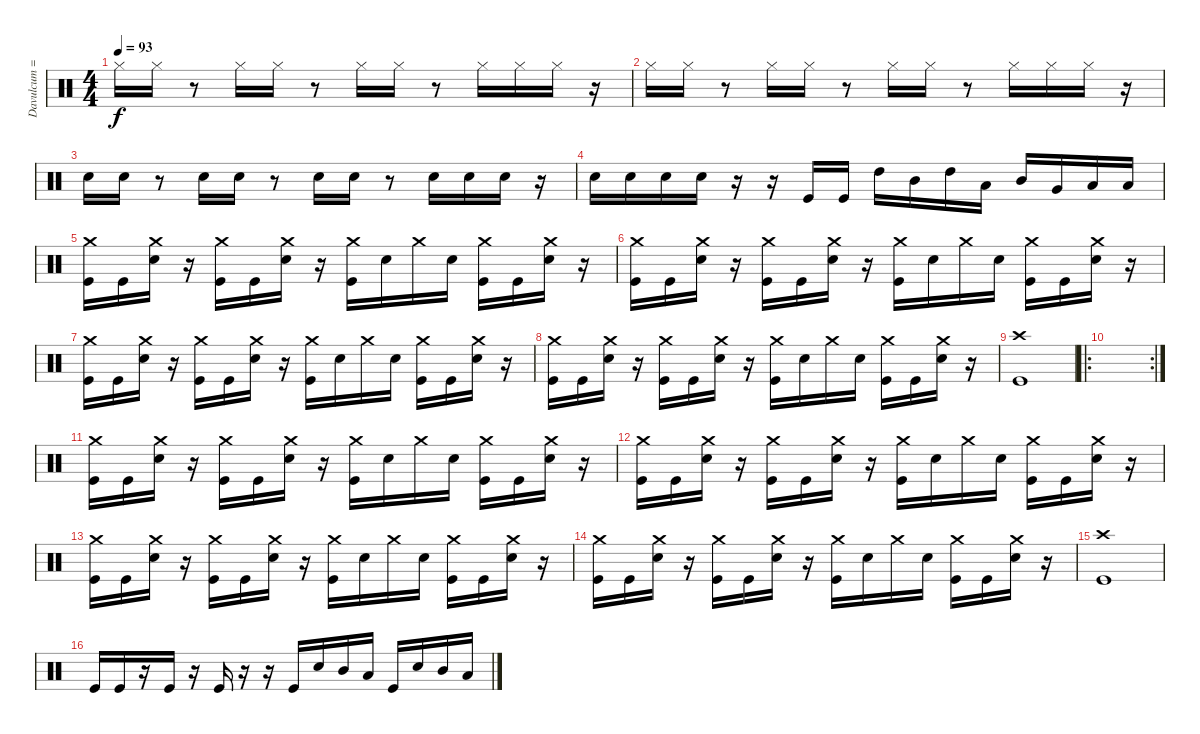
\track ("Davulcum =)" "Davulcum =") {instrument percussion}
\staff {score}
\articulation defaults
\ts (4 4)
\tempo 93
\clef neutral
\ks c "Hi-Hat (closed)".16{dy f} "Hi-Hat (closed)".16
r.8 "Hi-Hat (closed)".16 "Hi-Hat (closed)".16 r.8 "Hi-Hat (closed)".16 "Hi-Hat (closed)".16 r.8 "Hi-Hat (closed)".16 "Hi-Hat (closed)".16 "Hi-Hat (closed)".16 r.16 |
"Hi-Hat (closed)".16 "Hi-Hat (closed)".16 r.8 "Hi-Hat (closed)".16 "Hi-Hat (closed)".16 r.8 "Hi-Hat (closed)".16 "Hi-Hat (closed)".16 r.8 "Hi-Hat (closed)".16 "Hi-Hat (closed)".16 "Hi-Hat (closed)".16 r.16 |
"Snare (hit) 2".16 "Snare (hit) 2".16 r.8 "Snare (hit) 2".16 "Snare (hit) 2".16 r.8 "Snare (hit) 2".16 "Snare (hit) 2".16 r.8 "Snare (hit) 2".16 "Snare (hit) 2".16 "Snare (hit) 2".16 r.16 |
"Snare (hit) 2".16 "Snare (hit) 2".16 "Snare (hit) 2".16 "Snare (hit) 2".16 r.16 r.16 "Kick (hit)".16 "Kick (hit)".16 "High Tom (hit)".16 "Mid Tom (hit)".16 "High Tom (hit)".16 "Low Tom (hit)".16 "Mid Tom (hit)".16 "Very Low Tom (hit)".16 "Low Tom (hit)".16 "Low Floor Tom (hit)".16 |
("Crash medium (hit)" "Kick (hit)").16 "Kick (hit)".16 ("Crash medium (hit)" "Snare (hit) 2").16 r.16 ("Crash medium (hit)" "Kick (hit)").16 "Kick (hit)".16 ("Crash medium (hit)" "Snare (hit) 2").16 r.16 ("Crash medium (hit)" "Kick (hit)").16 "Snare (hit) 2".16 "Crash medium (hit)".16 "Snare (hit) 2".16 ("Crash medium (hit)" "Kick (hit)").16 "Kick (hit)".16 ("Crash medium (hit)" "Snare (hit) 2").16 r.16 |
("Crash medium (hit)" "Kick (hit)").16 "Kick (hit)".16 ("Crash medium (hit)" "Snare (hit) 2").16 r.16 ("Crash medium (hit)" "Kick (hit)").16 "Kick (hit)".16 ("Crash medium (hit)" "Snare (hit) 2").16 r.16 ("Crash medium (hit)" "Kick (hit)").16 "Snare (hit) 2".16 "Crash medium (hit)".16 "Snare (hit) 2".16 ("Crash medium (hit)" "Kick (hit)").16 "Kick (hit)".16 ("Crash medium (hit)" "Snare (hit) 2").16 r.16 |
("Crash medium (hit)" "Kick (hit)").16 "Kick (hit)".16 ("Crash medium (hit)" "Snare (hit) 2").16 r.16 ("Crash medium (hit)" "Kick (hit)").16 "Kick (hit)".16 ("Crash medium (hit)" "Snare (hit) 2").16 r.16 ("Crash medium (hit)" "Kick (hit)").16 "Snare (hit) 2".16 "Crash medium (hit)".16 "Snare (hit) 2".16 ("Crash medium (hit)" "Kick (hit)").16 "Kick (hit)".16 ("Crash medium (hit)" "Snare (hit) 2").16 r.16 |
("Crash medium (hit)" "Kick (hit)").16 "Kick (hit)".16 ("Crash medium (hit)" "Snare (hit) 2").16 r.16 ("Crash medium (hit)" "Kick (hit)").16 "Kick (hit)".16 ("Crash medium (hit)" "Snare (hit) 2").16 r.16 ("Crash medium (hit)" "Kick (hit)").16 "Snare (hit) 2".16 "Crash medium (hit)".16 "Snare (hit) 2".16 ("Crash medium (hit)" "Kick (hit)").16 "Kick (hit)".16 ("Crash medium (hit)" "Snare (hit) 2").16 r.16 |
("Crash high (hit)" "Kick (hit)").1 |
\ro
\rc 2
|
("Crash medium (hit)" "Kick (hit)").16 "Kick (hit)".16 ("Crash medium (hit)" "Snare (hit) 2").16 r.16 ("Crash medium (hit)" "Kick (hit)").16 "Kick (hit)".16 ("Crash medium (hit)" "Snare (hit) 2").16 r.16 ("Crash medium (hit)" "Kick (hit)").16 "Snare (hit) 2".16 "Crash medium (hit)".16 "Snare (hit) 2".16 ("Crash medium (hit)" "Kick (hit)").16 "Kick (hit)".16 ("Crash medium (hit)" "Snare (hit) 2").16 r.16 |
("Crash medium (hit)" "Kick (hit)").16 "Kick (hit)".16 ("Crash medium (hit)" "Snare (hit) 2").16 r.16 ("Crash medium (hit)" "Kick (hit)").16 "Kick (hit)".16 ("Crash medium (hit)" "Snare (hit) 2").16 r.16 ("Crash medium (hit)" "Kick (hit)").16 "Snare (hit) 2".16 "Crash medium (hit)".16 "Snare (hit) 2".16 ("Crash medium (hit)" "Kick (hit)").16 "Kick (hit)".16 ("Crash medium (hit)" "Snare (hit) 2").16 r.16 |
("Crash medium (hit)" "Kick (hit)").16 "Kick (hit)".16 ("Crash medium (hit)" "Snare (hit) 2").16 r.16 ("Crash medium (hit)" "Kick (hit)").16 "Kick (hit)".16 ("Crash medium (hit)" "Snare (hit) 2").16 r.16 ("Crash medium (hit)" "Kick (hit)").16 "Snare (hit) 2".16 "Crash medium (hit)".16 "Snare (hit) 2".16 ("Crash medium (hit)" "Kick (hit)").16 "Kick (hit)".16 ("Crash medium (hit)" "Snare (hit) 2").16 r.16 |
("Crash medium (hit)" "Kick (hit)").16 "Kick (hit)".16 ("Crash medium (hit)" "Snare (hit) 2").16 r.16 ("Crash medium (hit)" "Kick (hit)").16 "Kick (hit)".16 ("Crash medium (hit)" "Snare (hit) 2").16 r.16 ("Crash medium (hit)" "Kick (hit)").16 "Snare (hit) 2".16 "Crash medium (hit)".16 "Snare (hit) 2".16 ("Crash medium (hit)" "Kick (hit)").16 "Kick (hit)".16 ("Crash medium (hit)" "Snare (hit) 2").16 r.16 |
("Crash high (hit)" "Kick (hit)").1 |
"Kick (hit)".16 "Kick (hit)".16 r.16 "Kick (hit)".16 r.16 "Kick (hit)".16 r.16 r.16 "Kick (hit)".16 "Snare (hit) 2".16 "Mid Tom (hit)".16 "Low Tom (hit)".16 "Kick (hit)".16 "Snare (hit) 2".16 "Mid Tom (hit)".16 "Low Tom (hit)".16
